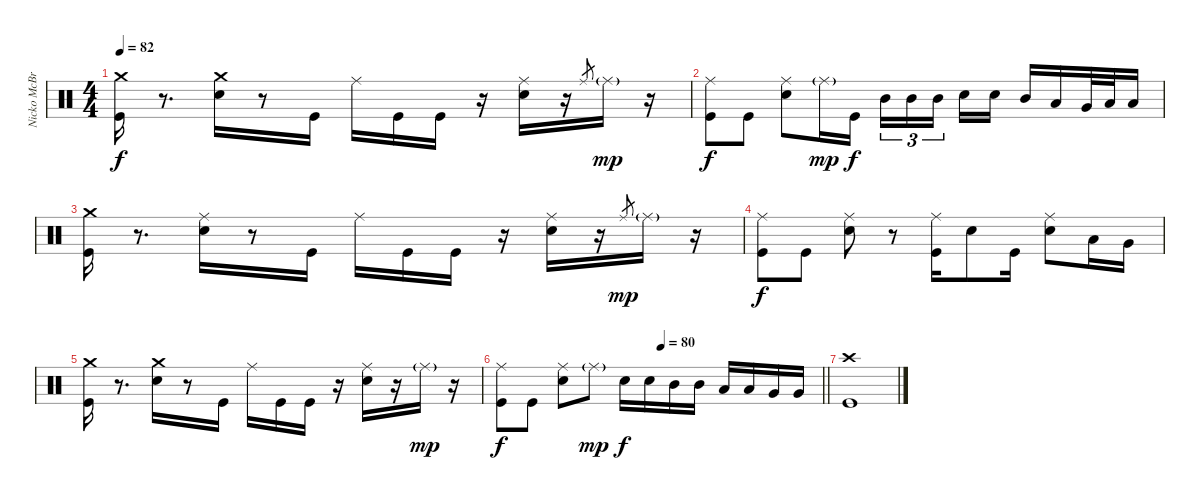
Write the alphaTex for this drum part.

\track ("Nicko McBrain" "Nicko McBr") {instrument percussion}
\staff {score}
\articulation defaults
\ts (4 4)
\tempo 82
\clef neutral
\ks c
("Crash medium (hit)" "Kick (hit)").16{dy f} r.8{d} ("Crash medium (hit)" "Electric Snare (hit)").16 r.8 "Kick (hit)".16 "Ride (middle)".16 "Kick (hit)".16 "Kick (hit)".16 r.16 ("Ride (middle)" "Electric Snare (hit)").16 r.16 "Ride (middle)".8{gr} "Ride (middle)"{g}.16{dy mp} r.16 |
("Ride (middle)" "Kick (hit)").8{dy f} "Kick (hit)".8 ("Ride (middle)" "Electric Snare (hit)").8 "Ride (middle)"{g}.16{dy mp} "Kick (hit)".16{dy f} "Mid Tom (hit)".16{tu (3 2)} "Mid Tom (hit)".16{tu (3 2)} "Mid Tom (hit)".16{tu (3 2) beam splitsecondary} "Electric Snare (hit)".16 "Electric Snare (hit)".16 "Mid Tom (hit)".16 "Low Tom (hit)".16 "Very Low Tom (hit)".32 "Low Tom (hit)".32 "Low Floor Tom (hit)".16 |
("Crash medium (hit)" "Kick (hit)").16 r.8{d} ("Ride (middle)" "Electric Snare (hit)").16 r.8 "Kick (hit)".16 "Ride (middle)".16 "Kick (hit)".16 "Kick (hit)".16 r.16 ("Ride (middle)" "Electric Snare (hit)").16 r.16 "Ride (middle)".8{gr dy mp} "Ride (middle)"{g}.16 r.16 |
("Ride (middle)" "Kick (hit)").8{dy f} "Kick (hit)".8 ("Ride (middle)" "Electric Snare (hit)").8 r.8 ("Ride (middle)" "Kick (hit)").16 "Electric Snare (hit)".8 "Kick (hit)".16 ("Ride (middle)" "Electric Snare (hit)").8 "Low Tom (hit)".16 "Very Low Tom (hit)".16 |
("Crash medium (hit)" "Kick (hit)").16 r.8{d} ("Crash medium (hit)" "Electric Snare (hit)").16 r.8 "Kick (hit)".16 "Ride (middle)".16 "Kick (hit)".16 "Kick (hit)".16 r.16 ("Ride (middle)" "Electric Snare (hit)").16 r.16 "Ride (middle)"{g}.16{dy mp} r.16 |
\tempo (80 0.5)
\barLineRight lightlight
("Ride (middle)" "Kick (hit)").8{dy f} "Kick (hit)".8 ("Ride (middle)" "Electric Snare (hit)").8 "Ride (middle)"{g}.8{dy mp} "Electric Snare (hit)".16{dy f} "Electric Snare (hit)".16 "Mid Tom (hit)".16 "Mid Tom (hit)".16 "Low Tom (hit)".16 "Low Tom (hit)".16 "Very Low Tom (hit)".16 "Very Low Tom (hit)".16 |
("Crash high (hit)" "Kick (hit)").1
